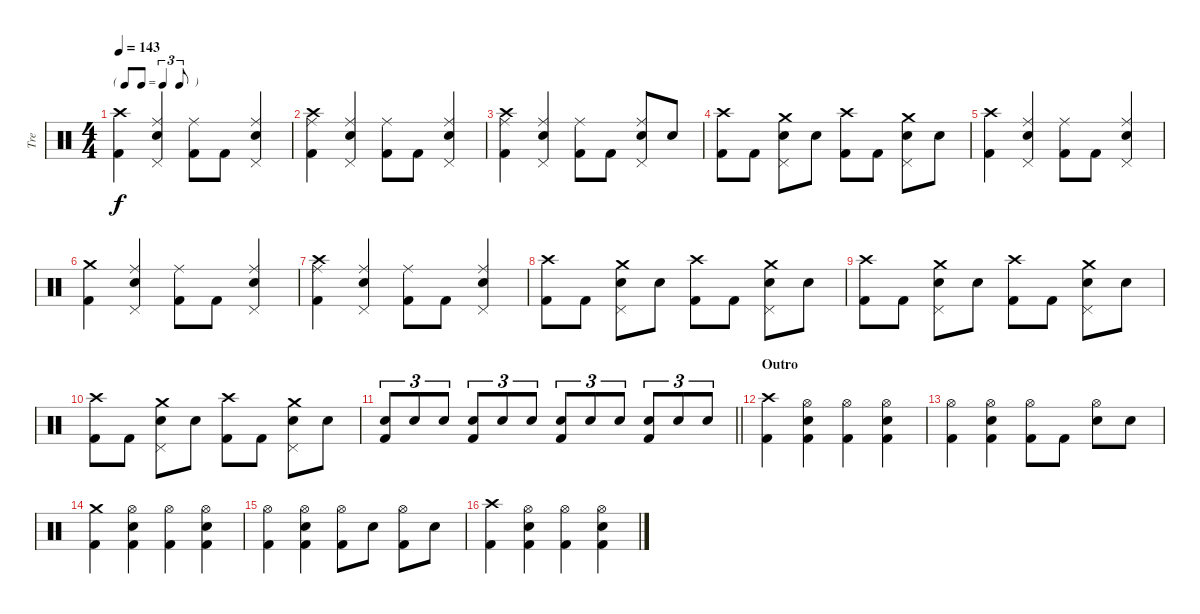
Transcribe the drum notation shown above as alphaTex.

\track ("Tre" "Tre") {instrument percussion}
\staff {score}
\articulation defaults
\ts (4 4)
\tf triplet8th
\tempo 143
\clef neutral
\ks c
("Crash high (hit)" "Kick (hit) 2").4{dy f} ("Ride (middle)" "Snare (hit) 2" "Pedal Hi-Hat (hit)").4 ("Ride (middle)" "Kick (hit) 2").8 "Kick (hit) 2".8 ("Ride (middle)" "Snare (hit) 2" "Pedal Hi-Hat (hit)").4 |
("Crash high (hit)" "Ride (middle)" "Kick (hit) 2").4 ("Ride (middle)" "Snare (hit) 2" "Pedal Hi-Hat (hit)").4 ("Ride (middle)" "Kick (hit) 2").8 "Kick (hit) 2".8 ("Ride (middle)" "Snare (hit) 2" "Pedal Hi-Hat (hit)").4 |
("Crash high (hit)" "Ride (middle)" "Kick (hit) 2").4 ("Ride (middle)" "Snare (hit) 2" "Pedal Hi-Hat (hit)").4 ("Ride (middle)" "Kick (hit) 2").8 "Kick (hit) 2".8 ("Ride (middle)" "Snare (hit) 2" "Pedal Hi-Hat (hit)").8 "Snare (hit) 2".8 |
("Crash high (hit)" "Kick (hit) 2").8 "Kick (hit) 2".8 ("Crash medium (hit)" "Snare (hit) 2" "Pedal Hi-Hat (hit)").8 "Snare (hit) 2".8 ("Crash high (hit)" "Kick (hit) 2").8 "Kick (hit) 2".8 ("Crash medium (hit)" "Snare (hit) 2" "Pedal Hi-Hat (hit)").8 "Snare (hit) 2".8 |
("Crash high (hit)" "Kick (hit) 2").4 ("Ride (middle)" "Snare (hit) 2" "Pedal Hi-Hat (hit)").4 ("Ride (middle)" "Kick (hit) 2").8 "Kick (hit) 2".8 ("Ride (middle)" "Snare (hit) 2" "Pedal Hi-Hat (hit)").4 |
("Crash medium (hit)" "Kick (hit) 2").4 ("Ride (middle)" "Snare (hit) 2" "Pedal Hi-Hat (hit)").4 ("Ride (middle)" "Kick (hit) 2").8 "Kick (hit) 2".8 ("Ride (middle)" "Snare (hit) 2" "Pedal Hi-Hat (hit)").4 |
("Crash high (hit)" "Ride (middle)" "Kick (hit) 2").4 ("Ride (middle)" "Snare (hit) 2" "Pedal Hi-Hat (hit)").4 ("Ride (middle)" "Kick (hit) 2").8 "Kick (hit) 2".8 ("Ride (middle)" "Snare (hit) 2" "Pedal Hi-Hat (hit)").4 |
("Crash high (hit)" "Kick (hit) 2").8 "Kick (hit) 2".8 ("Crash medium (hit)" "Snare (hit) 2" "Pedal Hi-Hat (hit)").8 "Snare (hit) 2".8 ("Crash high (hit)" "Kick (hit) 2").8 "Kick (hit) 2".8 ("Crash medium (hit)" "Snare (hit) 2" "Pedal Hi-Hat (hit)").8 "Snare (hit) 2".8 |
("Crash high (hit)" "Kick (hit) 2").8 "Kick (hit) 2".8 ("Crash medium (hit)" "Snare (hit) 2" "Pedal Hi-Hat (hit)").8 "Snare (hit) 2".8 ("Crash high (hit)" "Kick (hit) 2").8 "Kick (hit) 2".8 ("Crash medium (hit)" "Snare (hit) 2" "Pedal Hi-Hat (hit)").8 "Snare (hit) 2".8 |
("Crash high (hit)" "Kick (hit) 2").8 "Kick (hit) 2".8 ("Crash medium (hit)" "Snare (hit) 2" "Pedal Hi-Hat (hit)").8 "Snare (hit) 2".8 ("Crash high (hit)" "Kick (hit) 2").8 "Kick (hit) 2".8 ("Crash medium (hit)" "Snare (hit) 2" "Pedal Hi-Hat (hit)").8 "Snare (hit) 2".8 |
\barLineRight lightlight
("Snare (hit) 2" "Kick (hit) 2").8{tu (3 2)} "Snare (hit) 2".8{tu (3 2)} "Snare (hit) 2".8{tu (3 2)} ("Snare (hit) 2" "Kick (hit) 2").8{tu (3 2)} "Snare (hit) 2".8{tu (3 2)} "Snare (hit) 2".8{tu (3 2)} ("Snare (hit) 2" "Kick (hit) 2").8{tu (3 2)} "Snare (hit) 2".8{tu (3 2)} "Snare (hit) 2".8{tu (3 2)} ("Snare (hit) 2" "Kick (hit) 2").8{tu (3 2)} "Snare (hit) 2".8{tu (3 2)} "Snare (hit) 2".8{tu (3 2)} |
\section ("" "Outro")
("Crash high (hit)" "Kick (hit) 2").4 ("Hi-Hat (open)" "Snare (hit) 2" "Kick (hit) 2").4 ("Hi-Hat (open)" "Kick (hit) 2").4 ("Hi-Hat (open)" "Snare (hit) 2" "Kick (hit) 2").4 |
("Hi-Hat (open)" "Kick (hit) 2").4 ("Hi-Hat (open)" "Snare (hit) 2" "Kick (hit) 2").4 ("Hi-Hat (open)" "Kick (hit) 2").8 "Kick (hit) 2".8 ("Hi-Hat (open)" "Snare (hit) 2").8 "Snare (hit) 2".8 |
("Crash medium (hit)" "Kick (hit) 2").4 ("Hi-Hat (open)" "Snare (hit) 2" "Kick (hit) 2").4 ("Hi-Hat (open)" "Kick (hit) 2").4 ("Hi-Hat (open)" "Snare (hit) 2" "Kick (hit) 2").4 |
("Hi-Hat (open)" "Kick (hit) 2").4 ("Hi-Hat (open)" "Snare (hit) 2" "Kick (hit) 2").4 ("Hi-Hat (open)" "Kick (hit) 2").8 "Snare (hit) 2".8 ("Hi-Hat (open)" "Kick (hit) 2").8 "Snare (hit) 2".8 |
("Crash high (hit)" "Kick (hit) 2").4 ("Hi-Hat (open)" "Snare (hit) 2" "Kick (hit) 2").4 ("Hi-Hat (open)" "Kick (hit) 2").4 ("Hi-Hat (open)" "Snare (hit) 2" "Kick (hit) 2").4
